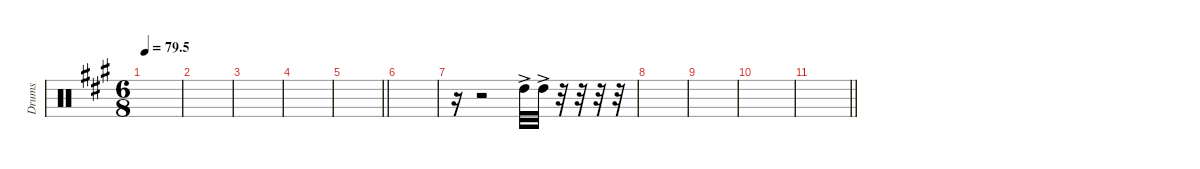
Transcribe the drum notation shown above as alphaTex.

\defaultSystemsLayout 4
\hideDynamics
\bracketExtendMode nobrackets
\otherSystemsTrackNameOrientation horizontal
\track ("Tom 01" "Drums") {instrument percussion}
\staff {score}
\articulation defaults
\ts (6 8)
\tempo
79.5
\accidentals auto
\clef neutral
\ottava regular
\simile none
\scale
0.333333
\ks a
|
\scale
0.333333 |
\scale
0.333333 |
\scale
0.333333 |
\scale
0.333333
\barLineRight lightlight
|
\scale
0.333333 |
\scale
0.333333 r.16 r.2 "High Tom (hit)"{ac acc forcenatural}.32 "High Tom (hit)"{ac acc forcenatural}.32 r.32 r.32 r.32 r.32 |
\scale
0.333333 |
\scale
0.333333 |
\scale
0.333333 |
\scale
0.333333
\barLineRight lightlight
|
\scale
0.333333 |
\scale
0.333333 |
\scale
0.333333 |
\scale
0.333333 |
\scale
0.333333
